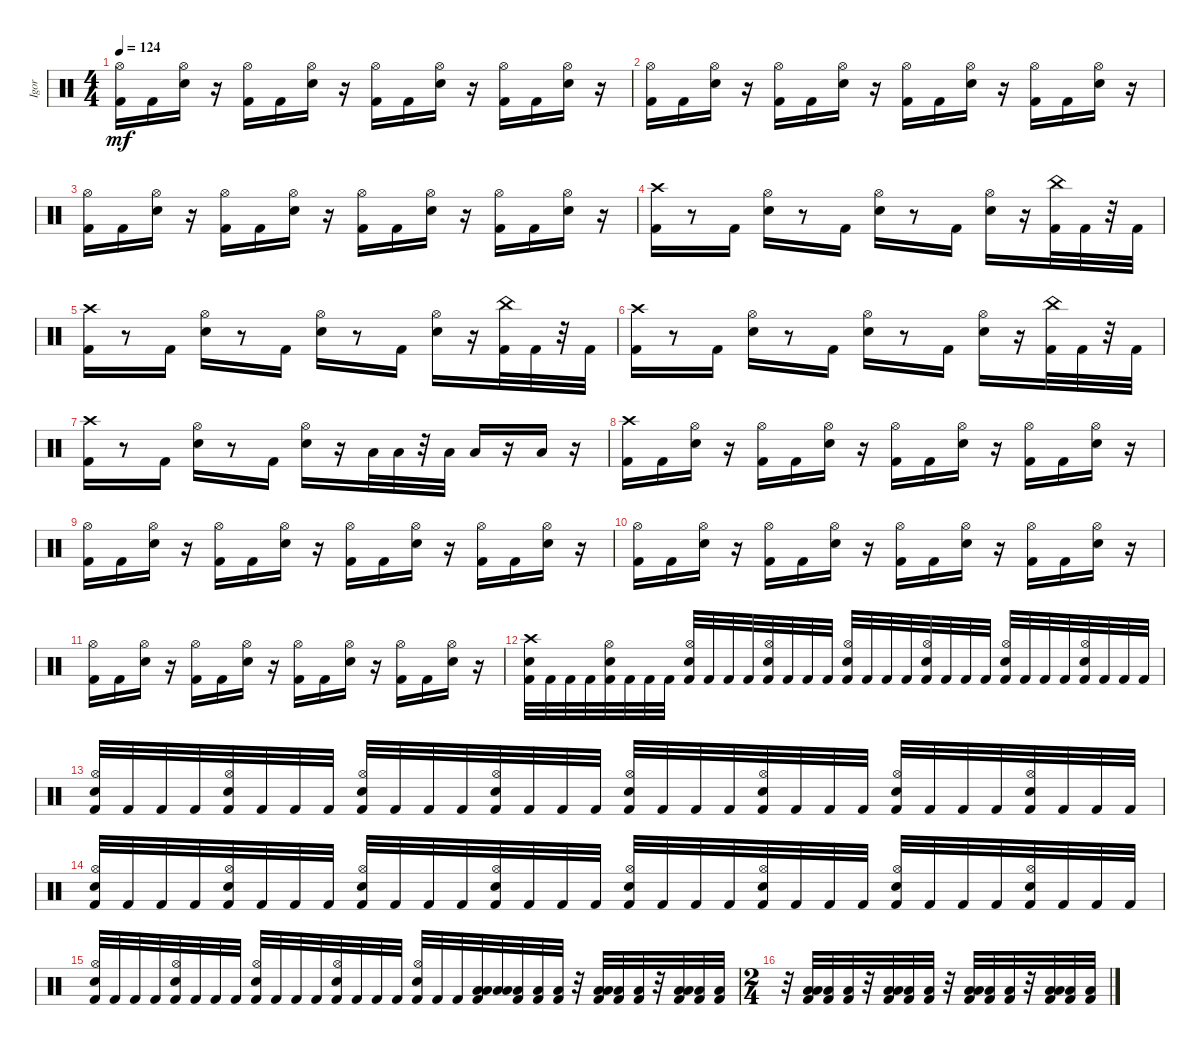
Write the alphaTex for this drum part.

\track ("Igor" "Igor") {instrument percussion}
\staff {score}
\articulation defaults
\ts (4 4)
\tempo 124
\clef neutral
\ks c
("Kick (hit) 2" "Hi-Hat (open)").16{dy mf} "Kick (hit) 2".16 ("Snare (hit) 2" "Hi-Hat (open)").16 r.16 ("Hi-Hat (open)" "Kick (hit) 2").16 "Kick (hit) 2".16 ("Snare (hit) 2" "Hi-Hat (open)").16 r.16 ("Kick (hit) 2" "Hi-Hat (open)").16 "Kick (hit) 2".16 ("Snare (hit) 2" "Hi-Hat (open)").16 r.16 ("Hi-Hat (open)" "Kick (hit) 2").16 "Kick (hit) 2".16 ("Snare (hit) 2" "Hi-Hat (open)").16 r.16 |
("Kick (hit) 2" "Hi-Hat (open)").16 "Kick (hit) 2".16 ("Snare (hit) 2" "Hi-Hat (open)").16 r.16 ("Hi-Hat (open)" "Kick (hit) 2").16 "Kick (hit) 2".16 ("Snare (hit) 2" "Hi-Hat (open)").16 r.16 ("Kick (hit) 2" "Hi-Hat (open)").16 "Kick (hit) 2".16 ("Snare (hit) 2" "Hi-Hat (open)").16 r.16 ("Hi-Hat (open)" "Kick (hit) 2").16 "Kick (hit) 2".16 ("Snare (hit) 2" "Hi-Hat (open)").16 r.16 |
("Kick (hit) 2" "Hi-Hat (open)").16 "Kick (hit) 2".16 ("Snare (hit) 2" "Hi-Hat (open)").16 r.16 ("Hi-Hat (open)" "Kick (hit) 2").16 "Kick (hit) 2".16 ("Snare (hit) 2" "Hi-Hat (open)").16 r.16 ("Hi-Hat (open)" "Kick (hit) 2").16 "Kick (hit) 2".16 ("Snare (hit) 2" "Hi-Hat (open)").16 r.16 ("Kick (hit) 2" "Hi-Hat (open)").16 "Kick (hit) 2".16 ("Snare (hit) 2" "Hi-Hat (open)").16 r.16 |
("Crash high (hit)" "Kick (hit) 2").16 r.8 "Kick (hit) 2".16 ("Snare (hit) 2" "Hi-Hat (open)").16 r.8 "Kick (hit) 2".16 ("Snare (hit) 2" "Hi-Hat (open)").16 r.8 "Kick (hit) 2".16 ("Snare (hit) 2" "Hi-Hat (open)").16 r.16 ("Kick (hit) 2" "China (hit)").32 "Kick (hit) 2".32 r.32 "Kick (hit) 2".32 |
("Crash high (hit)" "Kick (hit) 2").16 r.8 "Kick (hit) 2".16 ("Snare (hit) 2" "Hi-Hat (open)").16 r.8 "Kick (hit) 2".16 ("Snare (hit) 2" "Hi-Hat (open)").16 r.8 "Kick (hit) 2".16 ("Snare (hit) 2" "Hi-Hat (open)").16 r.16 ("Kick (hit) 2" "China (hit)").32 "Kick (hit) 2".32 r.32 "Kick (hit) 2".32 |
("Crash high (hit)" "Kick (hit) 2").16 r.8 "Kick (hit) 2".16 ("Snare (hit) 2" "Hi-Hat (open)").16 r.8 "Kick (hit) 2".16 ("Snare (hit) 2" "Hi-Hat (open)").16 r.8 "Kick (hit) 2".16 ("Snare (hit) 2" "Hi-Hat (open)").16 r.16 ("Kick (hit) 2" "China (hit)").32 "Kick (hit) 2".32 r.32 "Kick (hit) 2".32 |
("Crash high (hit)" "Kick (hit) 2").16 r.8 "Kick (hit) 2".16 ("Snare (hit) 2" "Hi-Hat (open)").16 r.8 "Kick (hit) 2".16 ("Snare (hit) 2" "Hi-Hat (open)").16 r.16 "Low Tom (hit)".32 "Low Tom (hit)".32 r.32 "Low Tom (hit)".32 "Low Floor Tom (hit)".16 r.16 "Low Floor Tom (hit)".16 r.16 |
("Kick (hit) 2" "Crash high (hit)").16 "Kick (hit) 2".16 ("Snare (hit) 2" "Hi-Hat (open)").16 r.16 ("Hi-Hat (open)" "Kick (hit) 2").16 "Kick (hit) 2".16 ("Snare (hit) 2" "Hi-Hat (open)").16 r.16 ("Kick (hit) 2" "Hi-Hat (open)").16 "Kick (hit) 2".16 ("Snare (hit) 2" "Hi-Hat (open)").16 r.16 ("Hi-Hat (open)" "Kick (hit) 2").16 "Kick (hit) 2".16 ("Snare (hit) 2" "Hi-Hat (open)").16 r.16 |
("Kick (hit) 2" "Hi-Hat (open)").16 "Kick (hit) 2".16 ("Snare (hit) 2" "Hi-Hat (open)").16 r.16 ("Hi-Hat (open)" "Kick (hit) 2").16 "Kick (hit) 2".16 ("Snare (hit) 2" "Hi-Hat (open)").16 r.16 ("Kick (hit) 2" "Hi-Hat (open)").16 "Kick (hit) 2".16 ("Snare (hit) 2" "Hi-Hat (open)").16 r.16 ("Hi-Hat (open)" "Kick (hit) 2").16 "Kick (hit) 2".16 ("Snare (hit) 2" "Hi-Hat (open)").16 r.16 |
("Kick (hit) 2" "Hi-Hat (open)").16 "Kick (hit) 2".16 ("Snare (hit) 2" "Hi-Hat (open)").16 r.16 ("Hi-Hat (open)" "Kick (hit) 2").16 "Kick (hit) 2".16 ("Snare (hit) 2" "Hi-Hat (open)").16 r.16 ("Kick (hit) 2" "Hi-Hat (open)").16 "Kick (hit) 2".16 ("Snare (hit) 2" "Hi-Hat (open)").16 r.16 ("Hi-Hat (open)" "Kick (hit) 2").16 "Kick (hit) 2".16 ("Snare (hit) 2" "Hi-Hat (open)").16 r.16 |
("Kick (hit) 2" "Hi-Hat (open)").16 "Kick (hit) 2".16 ("Snare (hit) 2" "Hi-Hat (open)").16 r.16 ("Hi-Hat (open)" "Kick (hit) 2").16 "Kick (hit) 2".16 ("Snare (hit) 2" "Hi-Hat (open)").16 r.16 ("Hi-Hat (open)" "Kick (hit) 2").16 "Kick (hit) 2".16 ("Snare (hit) 2" "Hi-Hat (open)").16 r.16 ("Kick (hit) 2" "Hi-Hat (open)").16 "Kick (hit) 2".16 ("Snare (hit) 2" "Hi-Hat (open)").16 r.16 |
("Crash high (hit)" "Snare (hit) 2" "Kick (hit) 2").32 "Kick (hit) 2".32 "Kick (hit) 2".32 "Kick (hit) 2".32 ("Snare (hit) 2" "Kick (hit) 2" "Hi-Hat (open)").32 "Kick (hit) 2".32 "Kick (hit) 2".32 "Kick (hit) 2".32 ("Snare (hit) 2" "Kick (hit) 2" "Hi-Hat (open)").32 "Kick (hit) 2".32 "Kick (hit) 2".32 "Kick (hit) 2".32 ("Snare (hit) 2" "Kick (hit) 2" "Hi-Hat (open)").32 "Kick (hit) 2".32 "Kick (hit) 2".32 "Kick (hit) 2".32 ("Snare (hit) 2" "Kick (hit) 2" "Hi-Hat (open)").32 "Kick (hit) 2".32 "Kick (hit) 2".32 "Kick (hit) 2".32 ("Snare (hit) 2" "Kick (hit) 2" "Hi-Hat (open)").32 "Kick (hit) 2".32 "Kick (hit) 2".32 "Kick (hit) 2".32 ("Snare (hit) 2" "Kick (hit) 2" "Hi-Hat (open)").32 "Kick (hit) 2".32 "Kick (hit) 2".32 "Kick (hit) 2".32 ("Snare (hit) 2" "Kick (hit) 2" "Hi-Hat (open)").32 "Kick (hit) 2".32 "Kick (hit) 2".32 "Kick (hit) 2".32 |
("Snare (hit) 2" "Kick (hit) 2" "Hi-Hat (open)").32 "Kick (hit) 2".32 "Kick (hit) 2".32 "Kick (hit) 2".32 ("Snare (hit) 2" "Kick (hit) 2" "Hi-Hat (open)").32 "Kick (hit) 2".32 "Kick (hit) 2".32 "Kick (hit) 2".32 ("Snare (hit) 2" "Kick (hit) 2" "Hi-Hat (open)").32 "Kick (hit) 2".32 "Kick (hit) 2".32 "Kick (hit) 2".32 ("Snare (hit) 2" "Kick (hit) 2" "Hi-Hat (open)").32 "Kick (hit) 2".32 "Kick (hit) 2".32 "Kick (hit) 2".32 ("Snare (hit) 2" "Kick (hit) 2" "Hi-Hat (open)").32 "Kick (hit) 2".32 "Kick (hit) 2".32 "Kick (hit) 2".32 ("Snare (hit) 2" "Kick (hit) 2" "Hi-Hat (open)").32 "Kick (hit) 2".32 "Kick (hit) 2".32 "Kick (hit) 2".32 ("Snare (hit) 2" "Kick (hit) 2" "Hi-Hat (open)").32 "Kick (hit) 2".32 "Kick (hit) 2".32 "Kick (hit) 2".32 ("Snare (hit) 2" "Kick (hit) 2" "Hi-Hat (open)").32 "Kick (hit) 2".32 "Kick (hit) 2".32 "Kick (hit) 2".32 |
("Snare (hit) 2" "Kick (hit) 2" "Hi-Hat (open)").32 "Kick (hit) 2".32 "Kick (hit) 2".32 "Kick (hit) 2".32 ("Snare (hit) 2" "Kick (hit) 2" "Hi-Hat (open)").32 "Kick (hit) 2".32 "Kick (hit) 2".32 "Kick (hit) 2".32 ("Snare (hit) 2" "Kick (hit) 2" "Hi-Hat (open)").32 "Kick (hit) 2".32 "Kick (hit) 2".32 "Kick (hit) 2".32 ("Snare (hit) 2" "Kick (hit) 2" "Hi-Hat (open)").32 "Kick (hit) 2".32 "Kick (hit) 2".32 "Kick (hit) 2".32 ("Snare (hit) 2" "Kick (hit) 2" "Hi-Hat (open)").32 "Kick (hit) 2".32 "Kick (hit) 2".32 "Kick (hit) 2".32 ("Snare (hit) 2" "Kick (hit) 2" "Hi-Hat (open)").32 "Kick (hit) 2".32 "Kick (hit) 2".32 "Kick (hit) 2".32 ("Snare (hit) 2" "Kick (hit) 2" "Hi-Hat (open)").32 "Kick (hit) 2".32 "Kick (hit) 2".32 "Kick (hit) 2".32 ("Snare (hit) 2" "Kick (hit) 2" "Hi-Hat (open)").32 "Kick (hit) 2".32 "Kick (hit) 2".32 "Kick (hit) 2".32 |
("Snare (hit) 2" "Kick (hit) 2" "Hi-Hat (open)").32 "Kick (hit) 2".32 "Kick (hit) 2".32 "Kick (hit) 2".32 ("Snare (hit) 2" "Kick (hit) 2" "Hi-Hat (open)").32 "Kick (hit) 2".32 "Kick (hit) 2".32 "Kick (hit) 2".32 ("Snare (hit) 2" "Kick (hit) 2" "Hi-Hat (open)").32 "Kick (hit) 2".32 "Kick (hit) 2".32 "Kick (hit) 2".32 ("Snare (hit) 2" "Kick (hit) 2" "Hi-Hat (open)").32 "Kick (hit) 2".32 "Kick (hit) 2".32 "Kick (hit) 2".32 ("Snare (hit) 2" "Kick (hit) 2" "Hi-Hat (open)").32 "Kick (hit) 2".32 "Kick (hit) 2".32 ("Kick (hit) 2" "Low Tom (hit)" "Low Tom (hit)").32 ("Low Tom (hit)" "Low Tom (hit)").32 ("Low Tom (hit)" "Kick (hit) 2").32 ("Low Tom (hit)" "Kick (hit) 2").32 ("Low Tom (hit)" "Kick (hit) 2").32 r.32 ("Low Tom (hit)" "Low Tom (hit)" "Kick (hit) 2").32 ("Low Tom (hit)" "Kick (hit) 2").32 ("Low Tom (hit)" "Kick (hit) 2").32 r.32 ("Low Tom (hit)" "Low Tom (hit)" "Kick (hit) 2").32 ("Low Tom (hit)" "Kick (hit) 2").32 ("Low Tom (hit)" "Kick (hit) 2").32 |
\ts (2 4)
r.32 ("Low Tom (hit)" "Kick (hit) 2" "Low Tom (hit)").32 ("Kick (hit) 2" "Low Tom (hit)").32 ("Kick (hit) 2" "Low Tom (hit)").32 r.32 ("Low Tom (hit)" "Kick (hit) 2" "Low Tom (hit)").32 ("Kick (hit) 2" "Low Tom (hit)").32 ("Kick (hit) 2" "Low Tom (hit)").32 r.32 ("Low Tom (hit)" "Kick (hit) 2" "Low Tom (hit)").32 ("Kick (hit) 2" "Low Tom (hit)").32 ("Kick (hit) 2" "Low Tom (hit)").32 r.32 ("Low Tom (hit)" "Kick (hit) 2" "Low Tom (hit)").32 ("Kick (hit) 2" "Low Tom (hit)").32 ("Kick (hit) 2" "Low Tom (hit)").32
